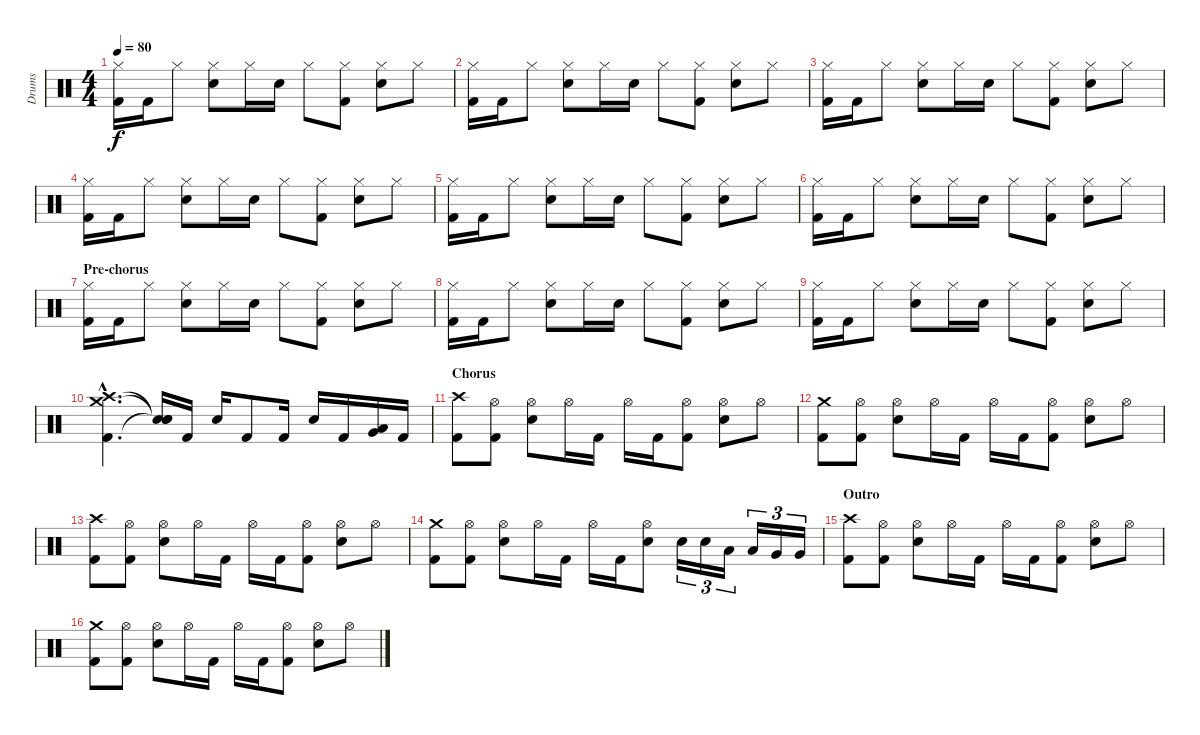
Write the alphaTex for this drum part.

\track ("Drums" "Drums") {instrument percussion}
\staff {score}
\articulation defaults
\ts (4 4)
\tempo 80
\clef neutral
\ks c
("Hi-Hat (closed)" "Kick (hit) 2").16{dy f} "Kick (hit) 2".16 "Hi-Hat (closed)".8 ("Hi-Hat (closed)" "Electric Snare (hit)").8 "Hi-Hat (closed)".16 "Electric Snare (hit)".16 "Hi-Hat (closed)".8 ("Hi-Hat (closed)" "Kick (hit) 2").8 ("Hi-Hat (closed)" "Electric Snare (hit)").8 "Hi-Hat (closed)".8 |
("Hi-Hat (closed)" "Kick (hit) 2").16 "Kick (hit) 2".16 "Hi-Hat (closed)".8 ("Hi-Hat (closed)" "Electric Snare (hit)").8 "Hi-Hat (closed)".16 "Electric Snare (hit)".16 "Hi-Hat (closed)".8 ("Hi-Hat (closed)" "Kick (hit) 2").8 ("Hi-Hat (closed)" "Electric Snare (hit)").8 "Hi-Hat (closed)".8 |
("Hi-Hat (closed)" "Kick (hit) 2").16 "Kick (hit) 2".16 "Hi-Hat (closed)".8 ("Hi-Hat (closed)" "Electric Snare (hit)").8 "Hi-Hat (closed)".16 "Electric Snare (hit)".16 "Hi-Hat (closed)".8 ("Hi-Hat (closed)" "Kick (hit) 2").8 ("Hi-Hat (closed)" "Electric Snare (hit)").8 "Hi-Hat (closed)".8 |
("Hi-Hat (closed)" "Kick (hit) 2").16 "Kick (hit) 2".16 "Hi-Hat (closed)".8 ("Hi-Hat (closed)" "Electric Snare (hit)").8 "Hi-Hat (closed)".16 "Electric Snare (hit)".16 "Hi-Hat (closed)".8 ("Hi-Hat (closed)" "Kick (hit) 2").8 ("Hi-Hat (closed)" "Electric Snare (hit)").8 "Hi-Hat (closed)".8 |
("Hi-Hat (closed)" "Kick (hit) 2").16 "Kick (hit) 2".16 "Hi-Hat (closed)".8 ("Hi-Hat (closed)" "Electric Snare (hit)").8 "Hi-Hat (closed)".16 "Electric Snare (hit)".16 "Hi-Hat (closed)".8 ("Hi-Hat (closed)" "Kick (hit) 2").8 ("Hi-Hat (closed)" "Electric Snare (hit)").8 "Hi-Hat (closed)".8 |
("Hi-Hat (closed)" "Kick (hit) 2").16 "Kick (hit) 2".16 "Hi-Hat (closed)".8 ("Hi-Hat (closed)" "Electric Snare (hit)").8 "Hi-Hat (closed)".16 "Electric Snare (hit)".16 "Hi-Hat (closed)".8 ("Hi-Hat (closed)" "Kick (hit) 2").8 ("Hi-Hat (closed)" "Electric Snare (hit)").8 "Hi-Hat (closed)".8 |
\section ("" "Pre-chorus")
("Hi-Hat (closed)" "Kick (hit) 2").16 "Kick (hit) 2".16 "Hi-Hat (closed)".8 ("Hi-Hat (closed)" "Electric Snare (hit)").8 "Hi-Hat (closed)".16 "Electric Snare (hit)".16 "Hi-Hat (closed)".8 ("Hi-Hat (closed)" "Kick (hit) 2").8 ("Hi-Hat (closed)" "Electric Snare (hit)").8 "Hi-Hat (closed)".8 |
("Hi-Hat (closed)" "Kick (hit) 2").16 "Kick (hit) 2".16 "Hi-Hat (closed)".8 ("Hi-Hat (closed)" "Electric Snare (hit)").8 "Hi-Hat (closed)".16 "Electric Snare (hit)".16 "Hi-Hat (closed)".8 ("Hi-Hat (closed)" "Kick (hit) 2").8 ("Hi-Hat (closed)" "Electric Snare (hit)").8 "Hi-Hat (closed)".8 |
("Hi-Hat (closed)" "Kick (hit) 2").16 "Kick (hit) 2".16 "Hi-Hat (closed)".8 ("Hi-Hat (closed)" "Electric Snare (hit)").8 "Hi-Hat (closed)".16 "Electric Snare (hit)".16 "Hi-Hat (closed)".8 ("Hi-Hat (closed)" "Kick (hit) 2").8 ("Hi-Hat (closed)" "Electric Snare (hit)").8 "Hi-Hat (closed)".8 |
("Crash medium (hit)"{hac} "Crash high (hit)"{hac} "Kick (hit) 2"{hac}).4{d} ("Snare (hit)"{t} "Snare (hit)"{t} "Snare (hit)"{t}).16 "Kick (hit) 2".16 "Electric Snare (hit)".16 "Kick (hit) 2".8 "Kick (hit) 2".16 "Electric Snare (hit)".16 "Kick (hit) 2".16 ("Very Low Tom (hit)" "Low Floor Tom (hit)").16 "Kick (hit) 2".16 |
\section ("" "Chorus")
("Crash high (hit)" "Kick (hit) 2").8 ("Hi-Hat (open)" "Kick (hit) 2").8 ("Hi-Hat (open)" "Electric Snare (hit)").8 "Hi-Hat (open)".16 "Kick (hit) 2".16 "Hi-Hat (open)".16 "Kick (hit) 2".16 ("Hi-Hat (open)" "Kick (hit) 2").8 ("Hi-Hat (open)" "Electric Snare (hit)").8 "Hi-Hat (open)".8 |
("Crash medium (hit)" "Kick (hit) 2").8 ("Hi-Hat (open)" "Kick (hit) 2").8 ("Hi-Hat (open)" "Electric Snare (hit)").8 "Hi-Hat (open)".16 "Kick (hit) 2".16 "Hi-Hat (open)".16 "Kick (hit) 2".16 ("Hi-Hat (open)" "Kick (hit) 2").8 ("Hi-Hat (open)" "Electric Snare (hit)").8 "Hi-Hat (open)".8 |
("Crash high (hit)" "Kick (hit) 2").8 ("Hi-Hat (open)" "Kick (hit) 2").8 ("Hi-Hat (open)" "Electric Snare (hit)").8 "Hi-Hat (open)".16 "Kick (hit) 2".16 "Hi-Hat (open)".16 "Kick (hit) 2".16 ("Hi-Hat (open)" "Kick (hit) 2").8 ("Hi-Hat (open)" "Electric Snare (hit)").8 "Hi-Hat (open)".8 |
("Crash medium (hit)" "Kick (hit) 2").8 ("Hi-Hat (open)" "Kick (hit) 2").8 ("Hi-Hat (open)" "Electric Snare (hit)").8 "Hi-Hat (open)".16 "Kick (hit) 2".16 "Hi-Hat (open)".16 "Kick (hit) 2".16 ("Hi-Hat (open)" "Electric Snare (hit)").8 "Electric Snare (hit)".16{tu (3 2)} "Electric Snare (hit)".16{tu (3 2)} "Low Tom (hit)".16{tu (3 2)} "Low Tom (hit)".16{tu (3 2)} "Very Low Tom (hit)".16{tu (3 2)} "Very Low Tom (hit)".16{tu (3 2)} |
\section ("" "Outro")
("Crash high (hit)" "Kick (hit) 2").8 ("Hi-Hat (open)" "Kick (hit) 2").8 ("Hi-Hat (open)" "Electric Snare (hit)").8 "Hi-Hat (open)".16 "Kick (hit) 2".16 "Hi-Hat (open)".16 "Kick (hit) 2".16 ("Hi-Hat (open)" "Kick (hit) 2").8 ("Hi-Hat (open)" "Electric Snare (hit)").8 "Hi-Hat (open)".8 |
("Crash medium (hit)" "Kick (hit) 2").8 ("Hi-Hat (open)" "Kick (hit) 2").8 ("Hi-Hat (open)" "Electric Snare (hit)").8 "Hi-Hat (open)".16 "Kick (hit) 2".16 "Hi-Hat (open)".16 "Kick (hit) 2".16 ("Hi-Hat (open)" "Kick (hit) 2").8 ("Hi-Hat (open)" "Electric Snare (hit)").8 "Hi-Hat (open)".8
